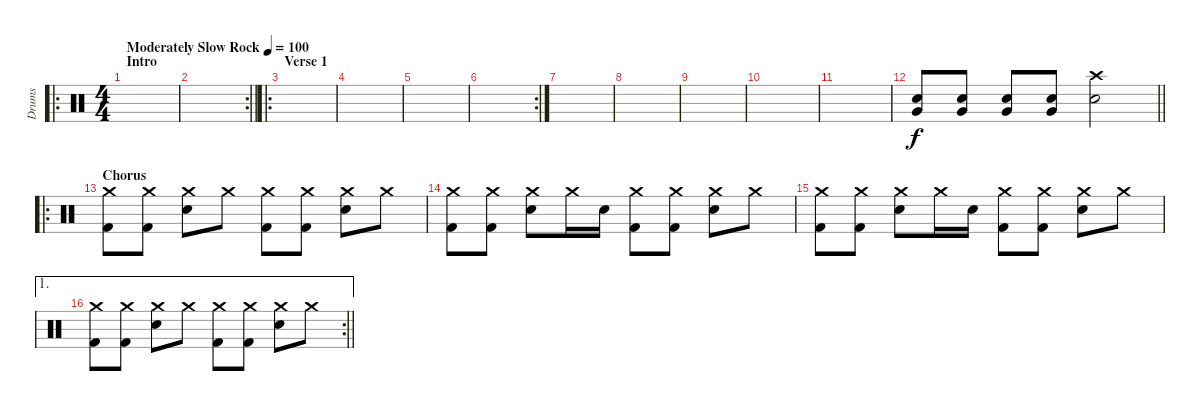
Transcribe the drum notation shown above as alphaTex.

\track ("Drums" "Drums") {instrument percussion}
\staff {score}
\articulation defaults
\ro
\ts (4 4)
\section ("" "Intro")
\tempo (100 "Moderately Slow Rock")
\clef neutral
\ks c
|
\rc 2
\barLineRight lightlight
|
\ro
\section ("" "Verse 1")
|
|
|
\rc 2
|
|
|
|
|
|
\barLineRight lightlight
("Very Low Tom (hit)" "Electric Snare (hit)").8 ("Very Low Tom (hit)" "Electric Snare (hit)").8 ("Very Low Tom (hit)" "Electric Snare (hit)").8 ("Very Low Tom (hit)" "Electric Snare (hit)").8 ("Crash high (hit)" "Electric Snare (hit)").2 |
\ro
\section ("" "Chorus")
("Crash medium (hit)" "Kick (hit) 2").8 ("Crash medium (hit)" "Kick (hit) 2").8 ("Crash medium (hit)" "Electric Snare (hit)").8 "Crash medium (hit)".8 ("Crash medium (hit)" "Kick (hit) 2").8 ("Crash medium (hit)" "Kick (hit) 2").8 ("Crash medium (hit)" "Electric Snare (hit)").8 "Crash medium (hit)".8 |
("Crash medium (hit)" "Kick (hit) 2").8 ("Crash medium (hit)" "Kick (hit) 2").8 ("Crash medium (hit)" "Electric Snare (hit)").8 "Crash medium (hit)".16 "Electric Snare (hit)".16 ("Crash medium (hit)" "Kick (hit) 2").8 ("Crash medium (hit)" "Kick (hit) 2").8 ("Crash medium (hit)" "Electric Snare (hit)").8 "Crash medium (hit)".8 |
("Crash medium (hit)" "Kick (hit) 2").8 ("Crash medium (hit)" "Kick (hit) 2").8 ("Crash medium (hit)" "Electric Snare (hit)").8 "Crash medium (hit)".16 "Electric Snare (hit)".16 ("Crash medium (hit)" "Kick (hit) 2").8 ("Crash medium (hit)" "Kick (hit) 2").8 ("Crash medium (hit)" "Electric Snare (hit)").8 "Crash medium (hit)".8 |
\ae 1
\rc 2
\barLineRight lightlight
("Crash medium (hit)" "Kick (hit) 2").8 ("Crash medium (hit)" "Kick (hit) 2").8 ("Crash medium (hit)" "Electric Snare (hit)").8 "Crash medium (hit)".8 ("Crash medium (hit)" "Kick (hit) 2").8 ("Crash medium (hit)" "Kick (hit) 2").8 ("Crash medium (hit)" "Electric Snare (hit)").8 "Crash medium (hit)".8
